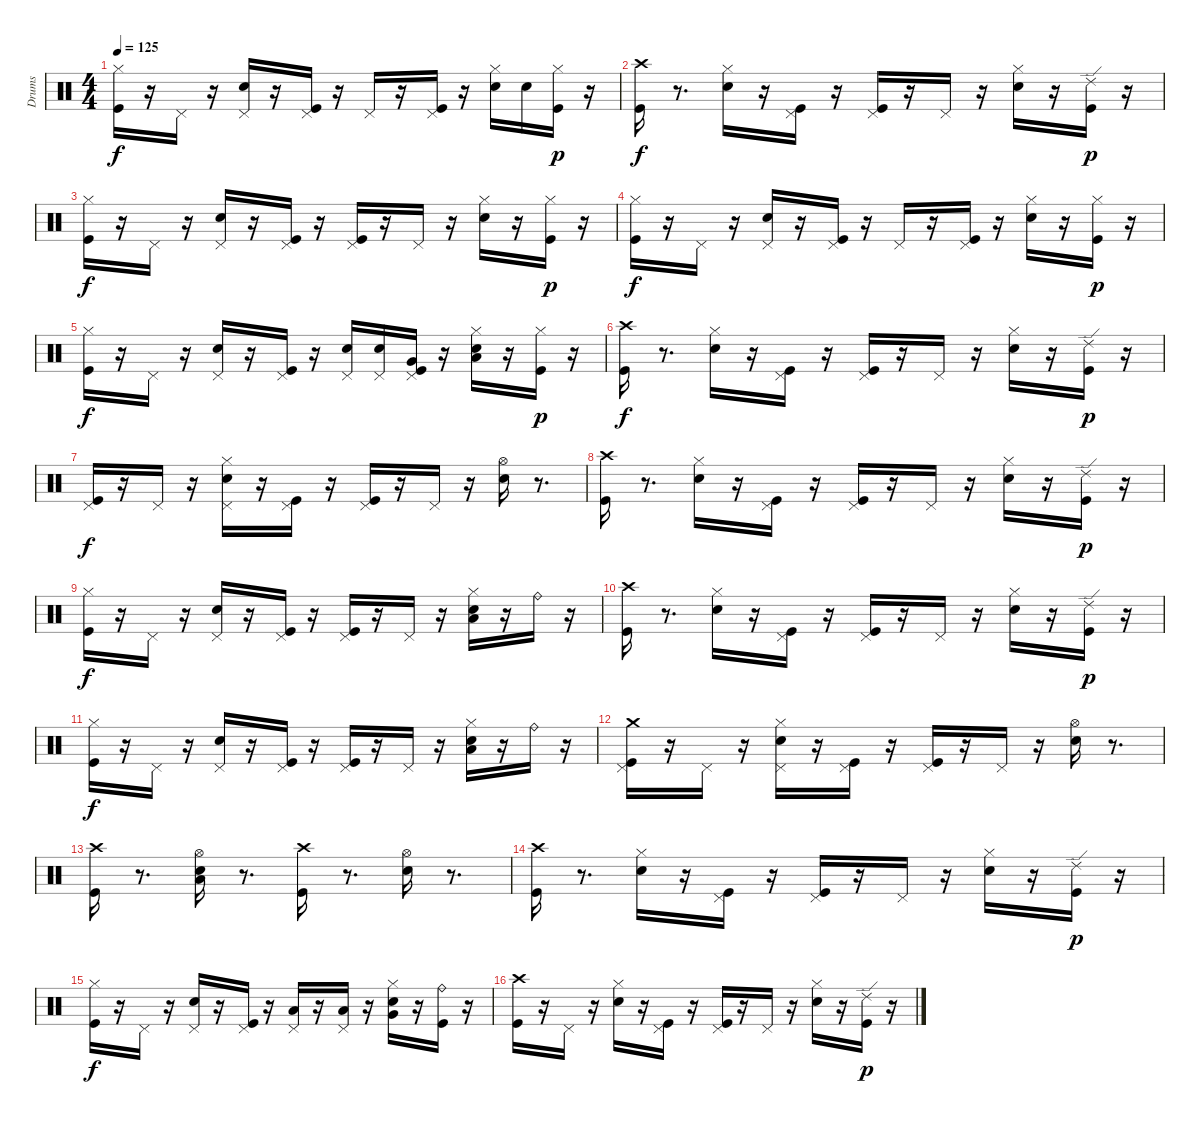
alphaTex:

\track ("Drums" "Drums") {instrument percussion}
\staff {score}
\articulation defaults
\ts (4 4)
\tempo 125
\clef neutral
\ks c
("Hi-Hat (closed)" "Kick (hit)").16{dy f} r.16 "Pedal Hi-Hat (hit)".16 r.16 ("Pedal Hi-Hat (hit)" "Electric Snare (hit)").16 r.16 ("Kick (hit)" "Pedal Hi-Hat (hit)").16 r.16 "Pedal Hi-Hat (hit)".16 r.16 ("Kick (hit)" "Pedal Hi-Hat (hit)").16 r.16 ("Hi-Hat (closed)" "Electric Snare (hit)").16 "Electric Snare (hit)".16 ("Kick (hit)" "Hi-Hat (closed)").16{dy p} r.16 |
("Crash high (hit)" "Kick (hit)").16{dy f} r.8{d} ("Hi-Hat (closed)" "Electric Snare (hit)").16 r.16 ("Pedal Hi-Hat (hit)" "Kick (hit)").16 r.16 ("Pedal Hi-Hat (hit)" "Kick (hit)").16 r.16 "Pedal Hi-Hat (hit)".16 r.16 ("Hi-Hat (closed)" "Electric Snare (hit)").16 r.16 ("Kick (hit)" "Ride (edge) 2").16{dy p} r.16 |
("Hi-Hat (closed)" "Kick (hit)").16{dy f} r.16 "Pedal Hi-Hat (hit)".16 r.16 ("Pedal Hi-Hat (hit)" "Electric Snare (hit)").16 r.16 ("Kick (hit)" "Pedal Hi-Hat (hit)").16 r.16 ("Pedal Hi-Hat (hit)" "Kick (hit)").16 r.16 "Pedal Hi-Hat (hit)".16 r.16 ("Hi-Hat (closed)" "Electric Snare (hit)").16 r.16 ("Kick (hit)" "Hi-Hat (closed)").16{dy p} r.16 |
("Hi-Hat (closed)" "Kick (hit)").16{dy f} r.16 "Pedal Hi-Hat (hit)".16 r.16 ("Pedal Hi-Hat (hit)" "Electric Snare (hit)").16 r.16 ("Kick (hit)" "Pedal Hi-Hat (hit)").16 r.16 "Pedal Hi-Hat (hit)".16 r.16 ("Kick (hit)" "Pedal Hi-Hat (hit)").16 r.16 ("Hi-Hat (closed)" "Electric Snare (hit)").16 r.16 ("Kick (hit)" "Hi-Hat (closed)").16{dy p} r.16 |
("Hi-Hat (closed)" "Kick (hit)").16{dy f} r.16 "Pedal Hi-Hat (hit)".16 r.16 ("Pedal Hi-Hat (hit)" "Electric Snare (hit)").16 r.16 ("Kick (hit)" "Pedal Hi-Hat (hit)").16 r.16 ("Electric Snare (hit)" "Pedal Hi-Hat (hit)").16 ("Pedal Hi-Hat (hit)" "Electric Snare (hit)").16 ("Very Low Tom (hit)" "Kick (hit)" "Pedal Hi-Hat (hit)").16 r.16 ("Low Tom (hit)" "Hi-Hat (closed)" "Electric Snare (hit)").16 r.16 ("Kick (hit)" "Hi-Hat (closed)").16{dy p} r.16 |
("Crash high (hit)" "Kick (hit)").16{dy f} r.8{d} ("Hi-Hat (closed)" "Electric Snare (hit)").16 r.16 ("Pedal Hi-Hat (hit)" "Kick (hit)").16 r.16 ("Pedal Hi-Hat (hit)" "Kick (hit)").16 r.16 "Pedal Hi-Hat (hit)".16 r.16 ("Hi-Hat (closed)" "Electric Snare (hit)").16 r.16 ("Kick (hit)" "Ride (edge) 2").16{dy p} r.16 |
("Pedal Hi-Hat (hit)" "Kick (hit)").16{dy f} r.16 "Pedal Hi-Hat (hit)".16 r.16 ("Pedal Hi-Hat (hit)" "Hi-Hat (closed)" "Electric Snare (hit)").16 r.16 ("Pedal Hi-Hat (hit)" "Kick (hit)").16 r.16 ("Pedal Hi-Hat (hit)" "Kick (hit)").16 r.16 "Pedal Hi-Hat (hit)".16 r.16 ("Hi-Hat (open)" "Electric Snare (hit)").16 r.8{d} |
("Crash high (hit)" "Kick (hit)").16 r.8{d} ("Hi-Hat (closed)" "Electric Snare (hit)").16 r.16 ("Pedal Hi-Hat (hit)" "Kick (hit)").16 r.16 ("Pedal Hi-Hat (hit)" "Kick (hit)").16 r.16 "Pedal Hi-Hat (hit)".16 r.16 ("Hi-Hat (closed)" "Electric Snare (hit)").16 r.16 ("Kick (hit)" "Ride (edge) 2").16{dy p} r.16 |
("Hi-Hat (closed)" "Kick (hit)").16{dy f} r.16 "Pedal Hi-Hat (hit)".16 r.16 ("Pedal Hi-Hat (hit)" "Electric Snare (hit)").16 r.16 ("Kick (hit)" "Pedal Hi-Hat (hit)").16 r.16 ("Pedal Hi-Hat (hit)" "Kick (hit)").16 r.16 "Pedal Hi-Hat (hit)".16 r.16 ("Low Tom (hit)" "Hi-Hat (closed)" "Electric Snare (hit)").16 r.16 "Ride (bell)".16 r.16 |
("Crash high (hit)" "Kick (hit)").16 r.8{d} ("Hi-Hat (closed)" "Electric Snare (hit)").16 r.16 ("Pedal Hi-Hat (hit)" "Kick (hit)").16 r.16 ("Pedal Hi-Hat (hit)" "Kick (hit)").16 r.16 "Pedal Hi-Hat (hit)".16 r.16 ("Hi-Hat (closed)" "Electric Snare (hit)").16 r.16 ("Kick (hit)" "Ride (edge) 2").16{dy p} r.16 |
("Hi-Hat (closed)" "Kick (hit)").16{dy f} r.16 "Pedal Hi-Hat (hit)".16 r.16 ("Pedal Hi-Hat (hit)" "Electric Snare (hit)").16 r.16 ("Kick (hit)" "Pedal Hi-Hat (hit)").16 r.16 ("Pedal Hi-Hat (hit)" "Kick (hit)").16 r.16 "Pedal Hi-Hat (hit)".16 r.16 ("Low Tom (hit)" "Hi-Hat (closed)" "Electric Snare (hit)").16 r.16 "Ride (bell)".16 r.16 |
("Crash medium (hit)" "Pedal Hi-Hat (hit)" "Kick (hit)").16 r.16 "Pedal Hi-Hat (hit)".16 r.16 ("Pedal Hi-Hat (hit)" "Hi-Hat (closed)" "Electric Snare (hit)").16 r.16 ("Pedal Hi-Hat (hit)" "Kick (hit)").16 r.16 ("Pedal Hi-Hat (hit)" "Kick (hit)").16 r.16 "Pedal Hi-Hat (hit)".16 r.16 ("Hi-Hat (open)" "Electric Snare (hit)").16 r.8{d} |
("Crash high (hit)" "Kick (hit)").16 r.8{d} ("Hi-Hat (open)" "Low Tom (hit)" "Electric Snare (hit)").16 r.8{d} ("Crash high (hit)" "Kick (hit)").16 r.8{d} ("Hi-Hat (open)" "Electric Snare (hit)").16 r.8{d} |
("Crash high (hit)" "Kick (hit)").16 r.8{d} ("Hi-Hat (closed)" "Electric Snare (hit)").16 r.16 ("Pedal Hi-Hat (hit)" "Kick (hit)").16 r.16 ("Pedal Hi-Hat (hit)" "Kick (hit)").16 r.16 "Pedal Hi-Hat (hit)".16 r.16 ("Hi-Hat (closed)" "Electric Snare (hit)").16 r.16 ("Kick (hit)" "Ride (edge) 2").16{dy p} r.16 |
("Hi-Hat (closed)" "Kick (hit)").16{dy f} r.16 "Pedal Hi-Hat (hit)".16 r.16 ("Pedal Hi-Hat (hit)" "Electric Snare (hit)").16 r.16 ("Kick (hit)" "Pedal Hi-Hat (hit)").16 r.16 ("Pedal Hi-Hat (hit)" "Low Tom (hit)").16 r.16 ("Low Tom (hit)" "Pedal Hi-Hat (hit)").16 r.16 ("Very Low Tom (hit)" "Hi-Hat (closed)" "Electric Snare (hit)").16 r.16 ("Kick (hit)" "Ride (bell)").16 r.16 |
("Crash high (hit)" "Kick (hit)").16 r.16 "Pedal Hi-Hat (hit)".16 r.16 ("Hi-Hat (closed)" "Electric Snare (hit)").16 r.16 ("Pedal Hi-Hat (hit)" "Kick (hit)").16 r.16 ("Pedal Hi-Hat (hit)" "Kick (hit)").16 r.16 "Pedal Hi-Hat (hit)".16 r.16 ("Hi-Hat (closed)" "Electric Snare (hit)").16 r.16 ("Kick (hit)" "Ride (edge) 2").16{dy p} r.16
